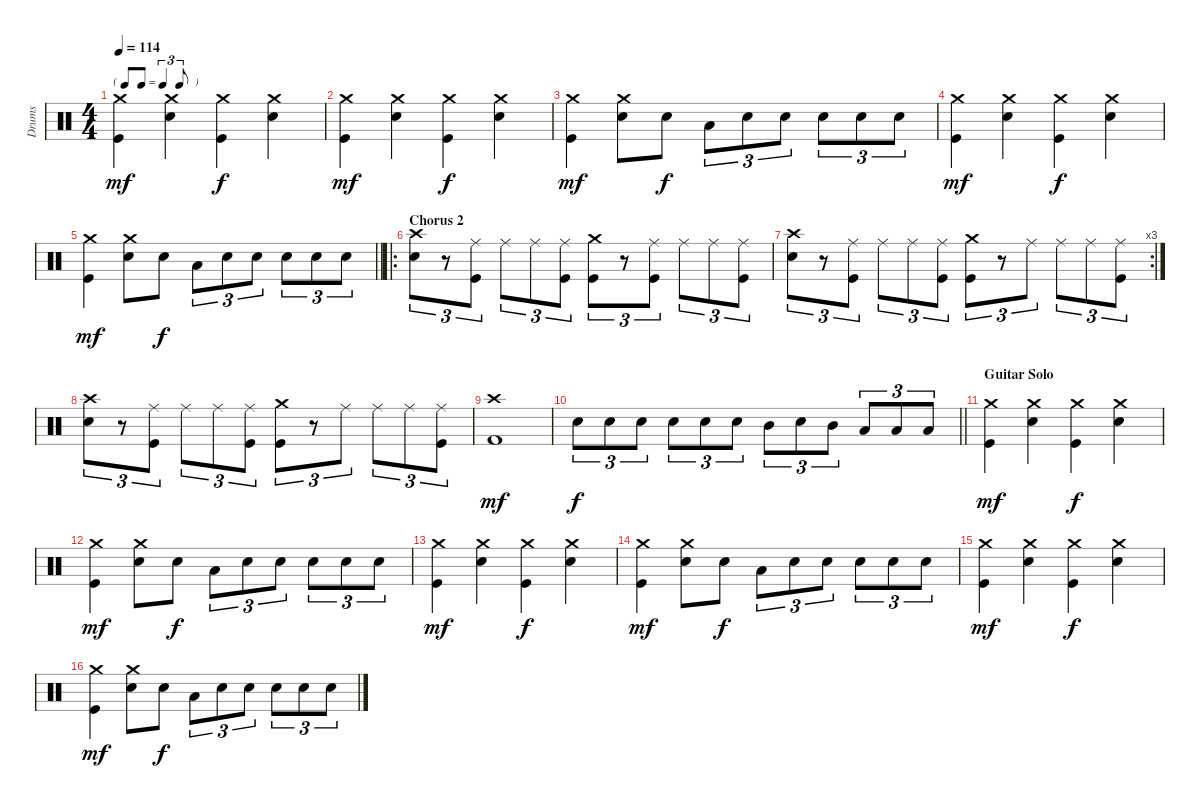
\track ("Drums" "Drums") {instrument percussion}
\staff {score}
\articulation defaults
\ts (4 4)
\tf triplet8th
\tempo 114
\clef neutral
\ks c
("Crash medium (hit)" "Kick (hit)").4{dy mf beam merge} ("Crash medium (hit)" "Snare (hit) 2").4 ("Crash medium (hit)" "Kick (hit)").4{dy f beam merge} ("Crash medium (hit)" "Snare (hit) 2").4 |
("Crash medium (hit)" "Kick (hit)").4{dy mf beam merge} ("Crash medium (hit)" "Snare (hit) 2").4 ("Crash medium (hit)" "Kick (hit)").4{dy f beam merge} ("Crash medium (hit)" "Snare (hit) 2").4 |
("Crash medium (hit)" "Kick (hit)").4{dy mf beam merge} ("Crash medium (hit)" "Snare (hit) 2").8 "Snare (hit) 2".8{dy f} "Low Tom (hit)".8{tu (3 2)} "Snare (hit) 2".8{tu (3 2)} "Snare (hit) 2".8{tu (3 2)} "Snare (hit) 2".8{tu (3 2)} "Snare (hit) 2".8{tu (3 2)} "Snare (hit) 2".8{tu (3 2)} |
("Crash medium (hit)" "Kick (hit)").4{dy mf beam merge} ("Crash medium (hit)" "Snare (hit) 2").4 ("Crash medium (hit)" "Kick (hit)").4{dy f beam merge} ("Crash medium (hit)" "Snare (hit) 2").4 |
\barLineRight lightlight
("Crash medium (hit)" "Kick (hit)").4{dy mf beam merge} ("Crash medium (hit)" "Snare (hit) 2").8 "Snare (hit) 2".8{dy f} "Low Tom (hit)".8{tu (3 2)} "Snare (hit) 2".8{tu (3 2)} "Snare (hit) 2".8{tu (3 2)} "Snare (hit) 2".8{tu (3 2)} "Snare (hit) 2".8{tu (3 2)} "Snare (hit) 2".8{tu (3 2)} |
\ro
\section ("" "Chorus 2")
("Crash high (hit)" "Snare (hit) 2").8{tu (3 2)} r.8{tu (3 2)} ("Ride (middle)" "Kick (hit)").8{tu (3 2)} "Ride (middle)".8{tu (3 2)} "Ride (middle)".8{tu (3 2)} ("Ride (middle)" "Kick (hit)").8{tu (3 2)} ("Crash medium (hit)" "Kick (hit)").8{tu (3 2)} r.8{tu (3 2)} ("Ride (middle)" "Kick (hit)").8{tu (3 2)} "Ride (middle)".8{tu (3 2)} "Ride (middle)".8{tu (3 2)} ("Ride (middle)" "Kick (hit)").8{tu (3 2)} |
\rc 3
("Crash high (hit)" "Snare (hit) 2").8{tu (3 2)} r.8{tu (3 2)} ("Ride (middle)" "Kick (hit)").8{tu (3 2)} "Ride (middle)".8{tu (3 2)} "Ride (middle)".8{tu (3 2)} ("Ride (middle)" "Kick (hit)").8{tu (3 2)} ("Crash medium (hit)" "Kick (hit)").8{tu (3 2)} r.8{tu (3 2)} "Ride (middle)".8{tu (3 2)} "Ride (middle)".8{tu (3 2)} "Ride (middle)".8{tu (3 2)} ("Ride (middle)" "Kick (hit)").8{tu (3 2)} |
("Crash high (hit)" "Snare (hit) 2").8{tu (3 2)} r.8{tu (3 2)} ("Ride (middle)" "Kick (hit)").8{tu (3 2)} "Ride (middle)".8{tu (3 2)} "Ride (middle)".8{tu (3 2)} ("Ride (middle)" "Kick (hit)").8{tu (3 2)} ("Crash medium (hit)" "Kick (hit)").8{tu (3 2)} r.8{tu (3 2)} "Ride (middle)".8{tu (3 2)} "Ride (middle)".8{tu (3 2)} "Ride (middle)".8{tu (3 2)} ("Ride (middle)" "Kick (hit)").8{tu (3 2)} |
("Crash high (hit)" "Kick (hit) 2").1{dy mf} |
\barLineRight lightlight "Snare (hit) 2".8{tu (3 2) dy f} "Snare (hit) 2".8{tu (3 2)} "Snare (hit) 2".8{tu (3 2)} "Snare (hit) 2".8{tu (3 2)} "Snare (hit) 2".8{tu (3 2)} "Snare (hit) 2".8{tu (3 2)} "Mid Tom (hit)".8{tu (3 2)} "Snare (hit) 2".8{tu (3 2)} "Mid Tom (hit)".8{tu (3 2)} "Low Tom (hit)".8{tu (3 2)} "Low Tom (hit)".8{tu (3 2)} "Low Tom (hit)".8{tu (3 2)}
|
\section ("" "Guitar Solo")
("Crash medium (hit)" "Kick (hit)").4{dy mf beam merge} ("Crash medium (hit)" "Snare (hit) 2").4 ("Crash medium (hit)" "Kick (hit)").4{dy f beam merge} ("Crash medium (hit)" "Snare (hit) 2").4 |
("Crash medium (hit)" "Kick (hit)").4{dy mf beam merge} ("Crash medium (hit)" "Snare (hit) 2").8 "Snare (hit) 2".8{dy f} "Low Tom (hit)".8{tu (3 2)} "Snare (hit) 2".8{tu (3 2)} "Snare (hit) 2".8{tu (3 2)} "Snare (hit) 2".8{tu (3 2)} "Snare (hit) 2".8{tu (3 2)} "Snare (hit) 2".8{tu (3 2)} |
("Crash medium (hit)" "Kick (hit)").4{dy mf beam merge} ("Crash medium (hit)" "Snare (hit) 2").4 ("Crash medium (hit)" "Kick (hit)").4{dy f beam merge} ("Crash medium (hit)" "Snare (hit) 2").4 |
("Crash medium (hit)" "Kick (hit)").4{dy mf beam merge} ("Crash medium (hit)" "Snare (hit) 2").8 "Snare (hit) 2".8{dy f} "Low Tom (hit)".8{tu (3 2)} "Snare (hit) 2".8{tu (3 2)} "Snare (hit) 2".8{tu (3 2)} "Snare (hit) 2".8{tu (3 2)} "Snare (hit) 2".8{tu (3 2)} "Snare (hit) 2".8{tu (3 2)} |
("Crash medium (hit)" "Kick (hit)").4{dy mf beam merge} ("Crash medium (hit)" "Snare (hit) 2").4 ("Crash medium (hit)" "Kick (hit)").4{dy f beam merge} ("Crash medium (hit)" "Snare (hit) 2").4 |
("Crash medium (hit)" "Kick (hit)").4{dy mf beam merge} ("Crash medium (hit)" "Snare (hit) 2").8 "Snare (hit) 2".8{dy f} "Low Tom (hit)".8{tu (3 2)} "Snare (hit) 2".8{tu (3 2)} "Snare (hit) 2".8{tu (3 2)} "Snare (hit) 2".8{tu (3 2)} "Snare (hit) 2".8{tu (3 2)} "Snare (hit) 2".8{tu (3 2)}
